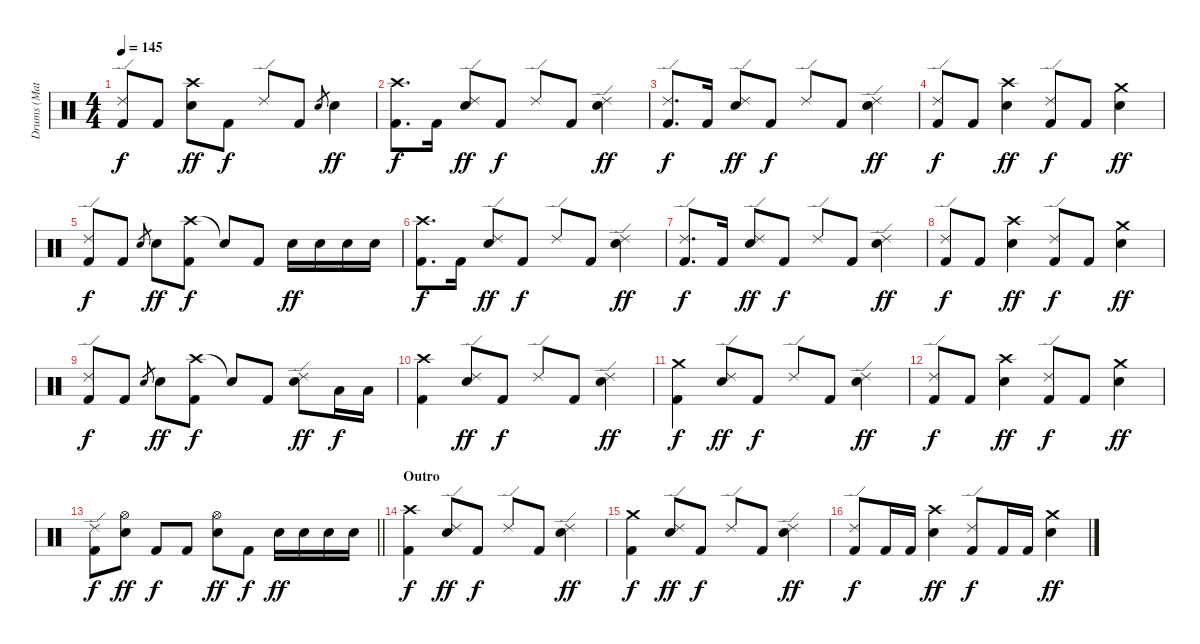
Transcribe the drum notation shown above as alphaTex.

\track ("Drums (Matt)" "Drums (Mat") {instrument percussion}
\staff {score}
\articulation defaults
\ts (4 4)
\tempo 145
\clef neutral
\ks c
("Ride (edge) 2" "Kick (hit) 2").8{dy f} "Kick (hit) 2".8 ("Crash high (hit)" "Snare (hit) 2").8{dy ff} "Kick (hit) 2".8{dy f} "Ride (edge) 2".8 "Kick (hit) 2".8 "Snare (hit) 2".8{gr} "Snare (hit) 2".4{dy ff} |
("Crash high (hit)" "Kick (hit) 2").8{d dy f} "Kick (hit) 2".16 ("Ride (edge) 2" "Snare (hit) 2").8{dy ff} "Kick (hit) 2".8{dy f} "Ride (edge) 2".8 "Kick (hit) 2".8 ("Ride (edge) 2" "Snare (hit) 2").4{dy ff} |
("Ride (edge) 2" "Kick (hit) 2").8{d dy f} "Kick (hit) 2".16 ("Ride (edge) 2" "Snare (hit) 2").8{dy ff} "Kick (hit) 2".8{dy f} "Ride (edge) 2".8 "Kick (hit) 2".8 ("Ride (edge) 2" "Snare (hit) 2").4{dy ff} |
("Ride (edge) 2" "Kick (hit) 2").8{dy f} "Kick (hit) 2".8 ("Crash high (hit)" "Snare (hit) 2").4{dy ff} ("Ride (edge) 2" "Kick (hit) 2").8{dy f} "Kick (hit) 2".8 ("Crash medium (hit)" "Snare (hit) 2").4{dy ff} |
("Ride (edge) 2" "Kick (hit) 2").8{dy f} "Kick (hit) 2".8 "Snare (hit) 2".8{gr} "Snare (hit) 2".8{dy ff} ("Crash high (hit)" "Kick (hit) 2").8{dy f} "Snare (hit)"{t}.8 "Kick (hit) 2".8 "Snare (hit) 2".16{dy ff} "Snare (hit) 2".16 "Snare (hit) 2".16 "Snare (hit) 2".16 |
("Crash high (hit)" "Kick (hit) 2").8{d dy f} "Kick (hit) 2".16 ("Ride (edge) 2" "Snare (hit) 2").8{dy ff} "Kick (hit) 2".8{dy f} "Ride (edge) 2".8 "Kick (hit) 2".8 ("Ride (edge) 2" "Snare (hit) 2").4{dy ff} |
("Ride (edge) 2" "Kick (hit) 2").8{d dy f} "Kick (hit) 2".16 ("Ride (edge) 2" "Snare (hit) 2").8{dy ff} "Kick (hit) 2".8{dy f} "Ride (edge) 2".8 "Kick (hit) 2".8 ("Ride (edge) 2" "Snare (hit) 2").4{dy ff} |
("Ride (edge) 2" "Kick (hit) 2").8{dy f} "Kick (hit) 2".8 ("Crash high (hit)" "Snare (hit) 2").4{dy ff} ("Ride (edge) 2" "Kick (hit) 2").8{dy f} "Kick (hit) 2".8 ("Crash medium (hit)" "Snare (hit) 2").4{dy ff} |
("Ride (edge) 2" "Kick (hit) 2").8{dy f} "Kick (hit) 2".8 "Snare (hit) 2".8{gr} "Snare (hit) 2".8{dy ff} ("Crash high (hit)" "Kick (hit) 2").8{dy f} "Snare (hit)"{t}.8 "Kick (hit) 2".8 ("Ride (edge) 2" "Snare (hit) 2").8{dy ff} "Low Tom (hit)".16{dy f} "Low Tom (hit)".16 |
("Crash high (hit)" "Kick (hit) 2").4 ("Ride (edge) 2" "Snare (hit) 2").8{dy ff} "Kick (hit) 2".8{dy f} "Ride (edge) 2".8 "Kick (hit) 2".8 ("Ride (edge) 2" "Snare (hit) 2").4{dy ff} |
("Crash medium (hit)" "Kick (hit) 2").4{dy f} ("Ride (edge) 2" "Snare (hit) 2").8{dy ff} "Kick (hit) 2".8{dy f} "Ride (edge) 2".8 "Kick (hit) 2".8 ("Ride (edge) 2" "Snare (hit) 2").4{dy ff} |
("Ride (edge) 2" "Kick (hit) 2").8{dy f} "Kick (hit) 2".8 ("Crash high (hit)" "Snare (hit) 2").4{dy ff} ("Ride (edge) 2" "Kick (hit) 2").8{dy f} "Kick (hit) 2".8 ("Crash medium (hit)" "Snare (hit) 2").4{dy ff} |
\barLineRight lightlight
("Ride (edge) 2" "Kick (hit) 2").8{dy f} ("Hi-Hat (open)" "Snare (hit) 2").8{dy ff} "Kick (hit) 2".8{dy f} "Kick (hit) 2".8 ("Hi-Hat (open)" "Snare (hit) 2").8{dy ff} "Kick (hit) 2".8{dy f} "Snare (hit) 2".16{dy ff} "Snare (hit) 2".16 "Snare (hit) 2".16 "Snare (hit) 2".16 |
\section ("" "Outro")
("Crash high (hit)" "Kick (hit) 2").4{dy f} ("Ride (edge) 2" "Snare (hit) 2").8{dy ff} "Kick (hit) 2".8{dy f} "Ride (edge) 2".8 "Kick (hit) 2".8 ("Ride (edge) 2" "Snare (hit) 2").4{dy ff} |
("Crash medium (hit)" "Kick (hit) 2").4{dy f} ("Ride (edge) 2" "Snare (hit) 2").8{dy ff} "Kick (hit) 2".8{dy f} "Ride (edge) 2".8 "Kick (hit) 2".8 ("Ride (edge) 2" "Snare (hit) 2").4{dy ff} |
("Ride (edge) 2" "Kick (hit) 2").8{dy f} "Kick (hit) 2".16 "Kick (hit) 2".16 ("Crash high (hit)" "Snare (hit) 2").4{dy ff} ("Ride (edge) 2" "Kick (hit) 2").8{dy f} "Kick (hit) 2".16 "Kick (hit) 2".16 ("Crash medium (hit)" "Snare (hit) 2").4{dy ff}
